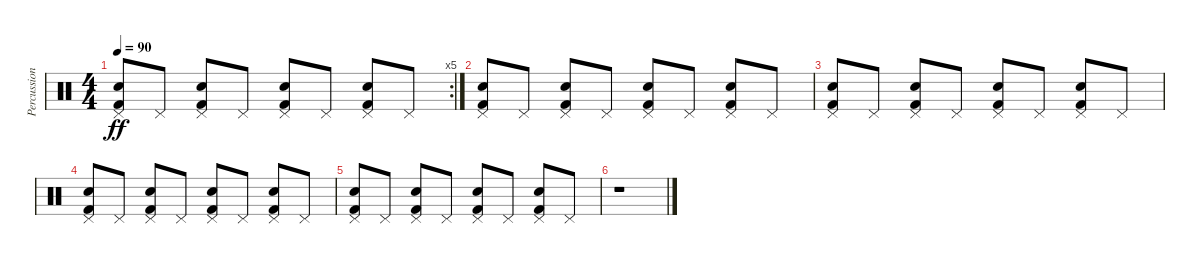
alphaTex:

\track ("Percussions" "Percussion") {instrument percussion}
\staff {score}
\articulation defaults
\rc 5
\ts (4 4)
\tempo 90
\clef neutral
\ks c
("Pedal Hi-Hat (hit)" "Electric Snare (hit)" "Kick (hit) 2").8{dy ff} "Pedal Hi-Hat (hit)".8 ("Pedal Hi-Hat (hit)" "Electric Snare (hit)" "Kick (hit) 2").8 "Pedal Hi-Hat (hit)".8 ("Pedal Hi-Hat (hit)" "Electric Snare (hit)" "Kick (hit) 2").8 "Pedal Hi-Hat (hit)".8 ("Pedal Hi-Hat (hit)" "Electric Snare (hit)" "Kick (hit) 2").8 "Pedal Hi-Hat (hit)".8 |
("Pedal Hi-Hat (hit)" "Electric Snare (hit)" "Kick (hit) 2").8{volume 6} "Pedal Hi-Hat (hit)".8 ("Pedal Hi-Hat (hit)" "Electric Snare (hit)" "Kick (hit) 2").8 "Pedal Hi-Hat (hit)".8 ("Pedal Hi-Hat (hit)" "Electric Snare (hit)" "Kick (hit) 2").8 "Pedal Hi-Hat (hit)".8 ("Pedal Hi-Hat (hit)" "Electric Snare (hit)" "Kick (hit) 2").8 "Pedal Hi-Hat (hit)".8 |
("Pedal Hi-Hat (hit)" "Electric Snare (hit)" "Kick (hit) 2").8 "Pedal Hi-Hat (hit)".8 ("Pedal Hi-Hat (hit)" "Electric Snare (hit)" "Kick (hit) 2").8 "Pedal Hi-Hat (hit)".8 ("Pedal Hi-Hat (hit)" "Electric Snare (hit)" "Kick (hit) 2").8 "Pedal Hi-Hat (hit)".8 ("Pedal Hi-Hat (hit)" "Electric Snare (hit)" "Kick (hit) 2").8 "Pedal Hi-Hat (hit)".8 |
("Pedal Hi-Hat (hit)" "Electric Snare (hit)" "Kick (hit) 2").8{volume 0} "Pedal Hi-Hat (hit)".8 ("Pedal Hi-Hat (hit)" "Electric Snare (hit)" "Kick (hit) 2").8 "Pedal Hi-Hat (hit)".8 ("Pedal Hi-Hat (hit)" "Electric Snare (hit)" "Kick (hit) 2").8 "Pedal Hi-Hat (hit)".8 ("Pedal Hi-Hat (hit)" "Electric Snare (hit)" "Kick (hit) 2").8 "Pedal Hi-Hat (hit)".8 |
("Pedal Hi-Hat (hit)" "Electric Snare (hit)" "Kick (hit) 2").8 "Pedal Hi-Hat (hit)".8 ("Pedal Hi-Hat (hit)" "Electric Snare (hit)" "Kick (hit) 2").8 "Pedal Hi-Hat (hit)".8 ("Pedal Hi-Hat (hit)" "Electric Snare (hit)" "Kick (hit) 2").8 "Pedal Hi-Hat (hit)".8 ("Pedal Hi-Hat (hit)" "Electric Snare (hit)" "Kick (hit) 2").8 "Pedal Hi-Hat (hit)".8 |
r.1
